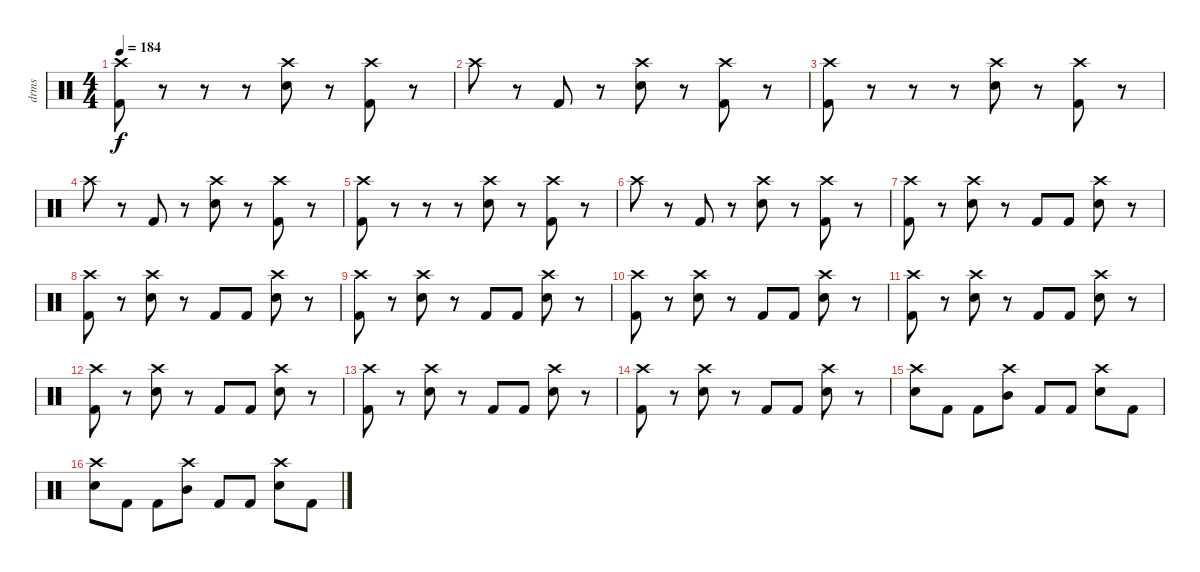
\track ("drms" "drms") {instrument percussion}
\staff {score}
\articulation defaults
\ts (4 4)
\tempo 184
\clef neutral
\ks c
("Kick (hit) 2" "Crash high (hit)").8{dy f} r.8 r.8 r.8 ("Snare (hit) 2" "Crash high (hit)").8 r.8 ("Kick (hit) 2" "Crash high (hit)").8 r.8 |
"Crash high (hit)".8 r.8 "Kick (hit) 2".8 r.8 ("Snare (hit) 2" "Crash high (hit)").8 r.8 ("Kick (hit) 2" "Crash high (hit)").8 r.8 |
("Kick (hit) 2" "Crash high (hit)").8 r.8 r.8 r.8 ("Snare (hit) 2" "Crash high (hit)").8 r.8 ("Kick (hit) 2" "Crash high (hit)").8 r.8 |
"Crash high (hit)".8 r.8 "Kick (hit) 2".8 r.8 ("Snare (hit) 2" "Crash high (hit)").8 r.8 ("Kick (hit) 2" "Crash high (hit)").8 r.8 |
("Kick (hit) 2" "Crash high (hit)").8 r.8 r.8 r.8 ("Snare (hit) 2" "Crash high (hit)").8 r.8 ("Kick (hit) 2" "Crash high (hit)").8 r.8 |
"Crash high (hit)".8 r.8 "Kick (hit) 2".8 r.8 ("Snare (hit) 2" "Crash high (hit)").8 r.8 ("Kick (hit) 2" "Crash high (hit)").8 r.8 |
("Crash high (hit)" "Kick (hit) 2").8 r.8 ("Crash high (hit)" "Snare (hit) 2").8 r.8 "Kick (hit) 2".8 "Kick (hit) 2".8 ("Crash high (hit)" "Snare (hit) 2").8 r.8 |
("Crash high (hit)" "Kick (hit) 2").8 r.8 ("Crash high (hit)" "Snare (hit) 2").8 r.8 "Kick (hit) 2".8 "Kick (hit) 2".8 ("Crash high (hit)" "Snare (hit) 2").8 r.8 |
("Crash high (hit)" "Kick (hit) 2").8 r.8 ("Crash high (hit)" "Snare (hit) 2").8 r.8 "Kick (hit) 2".8 "Kick (hit) 2".8 ("Crash high (hit)" "Snare (hit) 2").8 r.8 |
("Crash high (hit)" "Kick (hit) 2").8 r.8 ("Crash high (hit)" "Snare (hit) 2").8 r.8 "Kick (hit) 2".8 "Kick (hit) 2".8 ("Crash high (hit)" "Snare (hit) 2").8 r.8 |
("Crash high (hit)" "Kick (hit) 2").8 r.8 ("Crash high (hit)" "Snare (hit) 2").8 r.8 "Kick (hit) 2".8 "Kick (hit) 2".8 ("Crash high (hit)" "Snare (hit) 2").8 r.8 |
("Crash high (hit)" "Kick (hit) 2").8 r.8 ("Crash high (hit)" "Snare (hit) 2").8 r.8 "Kick (hit) 2".8 "Kick (hit) 2".8 ("Crash high (hit)" "Snare (hit) 2").8 r.8 |
("Crash high (hit)" "Kick (hit) 2").8 r.8 ("Crash high (hit)" "Snare (hit) 2").8 r.8 "Kick (hit) 2".8 "Kick (hit) 2".8 ("Crash high (hit)" "Snare (hit) 2").8 r.8 |
("Crash high (hit)" "Kick (hit) 2").8 r.8 ("Crash high (hit)" "Snare (hit) 2").8 r.8 "Kick (hit) 2".8 "Kick (hit) 2".8 ("Crash high (hit)" "Snare (hit) 2").8 r.8 |
("Crash high (hit)" "Snare (hit) 2").8 "Kick (hit) 2".8 "Kick (hit) 2".8 ("Crash high (hit)" "Mid Tom (hit)").8 "Kick (hit) 2".8 "Kick (hit) 2".8 ("Crash high (hit)" "Snare (hit) 2").8 "Kick (hit) 2".8 |
("Crash high (hit)" "Snare (hit) 2").8 "Kick (hit) 2".8 "Kick (hit) 2".8 ("Crash high (hit)" "Mid Tom (hit)").8 "Kick (hit) 2".8 "Kick (hit) 2".8 ("Crash high (hit)" "Snare (hit) 2").8 "Kick (hit) 2".8
